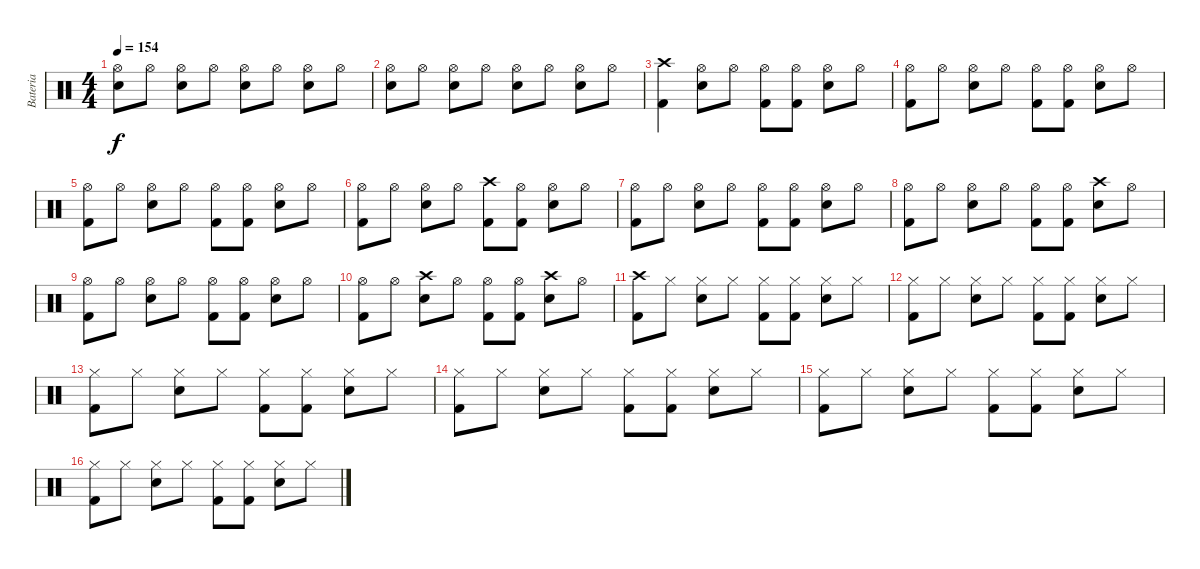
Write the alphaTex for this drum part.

\track ("Bateria" "Bateria") {instrument percussion}
\staff {score}
\articulation defaults
\ts (4 4)
\tempo 154
\clef neutral
\ks c
("Electric Snare (hit)" "Hi-Hat (open)").8{dy f} "Hi-Hat (open)".8 ("Electric Snare (hit)" "Hi-Hat (open)").8 "Hi-Hat (open)".8 ("Electric Snare (hit)" "Hi-Hat (open)").8 "Hi-Hat (open)".8 ("Electric Snare (hit)" "Hi-Hat (open)").8 "Hi-Hat (open)".8 |
("Electric Snare (hit)" "Hi-Hat (open)").8 "Hi-Hat (open)".8 ("Electric Snare (hit)" "Hi-Hat (open)").8 "Hi-Hat (open)".8 ("Electric Snare (hit)" "Hi-Hat (open)").8 "Hi-Hat (open)".8 ("Electric Snare (hit)" "Hi-Hat (open)").8 "Hi-Hat (open)".8 |
("Kick (hit) 2" "Crash high (hit)").4 ("Electric Snare (hit)" "Hi-Hat (open)").8 "Hi-Hat (open)".8 ("Kick (hit) 2" "Hi-Hat (open)").8 ("Kick (hit) 2" "Hi-Hat (open)").8 ("Electric Snare (hit)" "Hi-Hat (open)").8 "Hi-Hat (open)".8 |
("Kick (hit) 2" "Hi-Hat (open)").8 "Hi-Hat (open)".8 ("Electric Snare (hit)" "Hi-Hat (open)").8 "Hi-Hat (open)".8 ("Kick (hit) 2" "Hi-Hat (open)").8 ("Kick (hit) 2" "Hi-Hat (open)").8 ("Electric Snare (hit)" "Hi-Hat (open)").8 "Hi-Hat (open)".8 |
("Kick (hit) 2" "Hi-Hat (open)").8 "Hi-Hat (open)".8 ("Electric Snare (hit)" "Hi-Hat (open)").8 "Hi-Hat (open)".8 ("Kick (hit) 2" "Hi-Hat (open)").8 ("Kick (hit) 2" "Hi-Hat (open)").8 ("Electric Snare (hit)" "Hi-Hat (open)").8 "Hi-Hat (open)".8 |
("Kick (hit) 2" "Hi-Hat (open)").8 "Hi-Hat (open)".8 ("Electric Snare (hit)" "Hi-Hat (open)").8 "Hi-Hat (open)".8 ("Kick (hit) 2" "Crash high (hit)").8 ("Kick (hit) 2" "Hi-Hat (open)").8 ("Electric Snare (hit)" "Hi-Hat (open)").8 "Hi-Hat (open)".8 |
("Kick (hit) 2" "Hi-Hat (open)").8 "Hi-Hat (open)".8 ("Electric Snare (hit)" "Hi-Hat (open)").8 "Hi-Hat (open)".8 ("Kick (hit) 2" "Hi-Hat (open)").8 ("Kick (hit) 2" "Hi-Hat (open)").8 ("Electric Snare (hit)" "Hi-Hat (open)").8 "Hi-Hat (open)".8 |
("Kick (hit) 2" "Hi-Hat (open)").8 "Hi-Hat (open)".8 ("Electric Snare (hit)" "Hi-Hat (open)").8 "Hi-Hat (open)".8 ("Kick (hit) 2" "Hi-Hat (open)").8 ("Kick (hit) 2" "Hi-Hat (open)").8 ("Electric Snare (hit)" "Crash high (hit)").8 "Hi-Hat (open)".8 |
("Kick (hit) 2" "Hi-Hat (open)").8 "Hi-Hat (open)".8 ("Electric Snare (hit)" "Hi-Hat (open)").8 "Hi-Hat (open)".8 ("Kick (hit) 2" "Hi-Hat (open)").8 ("Kick (hit) 2" "Hi-Hat (open)").8 ("Electric Snare (hit)" "Hi-Hat (open)").8 "Hi-Hat (open)".8 |
("Kick (hit) 2" "Hi-Hat (open)").8 "Hi-Hat (open)".8 ("Electric Snare (hit)" "Crash high (hit)").8 "Hi-Hat (open)".8 ("Kick (hit) 2" "Hi-Hat (open)").8 ("Kick (hit) 2" "Hi-Hat (open)").8 ("Electric Snare (hit)" "Crash high (hit)").8 "Hi-Hat (open)".8 |
("Kick (hit) 2" "Crash high (hit)").8 "Hi-Hat (closed)".8 ("Electric Snare (hit)" "Hi-Hat (closed)").8 "Hi-Hat (closed)".8 ("Kick (hit) 2" "Hi-Hat (closed)").8 ("Kick (hit) 2" "Hi-Hat (closed)").8 ("Electric Snare (hit)" "Hi-Hat (closed)").8 "Hi-Hat (closed)".8 |
("Kick (hit) 2" "Hi-Hat (closed)").8 "Hi-Hat (closed)".8 ("Electric Snare (hit)" "Hi-Hat (closed)").8 "Hi-Hat (closed)".8 ("Kick (hit) 2" "Hi-Hat (closed)").8 ("Kick (hit) 2" "Hi-Hat (closed)").8 ("Electric Snare (hit)" "Hi-Hat (closed)").8 "Hi-Hat (closed)".8 |
("Kick (hit) 2" "Hi-Hat (closed)").8 "Hi-Hat (closed)".8 ("Electric Snare (hit)" "Hi-Hat (closed)").8 "Hi-Hat (closed)".8 ("Kick (hit) 2" "Hi-Hat (closed)").8 ("Kick (hit) 2" "Hi-Hat (closed)").8 ("Electric Snare (hit)" "Hi-Hat (closed)").8 "Hi-Hat (closed)".8 |
("Kick (hit) 2" "Hi-Hat (closed)").8 "Hi-Hat (closed)".8 ("Electric Snare (hit)" "Hi-Hat (closed)").8 "Hi-Hat (closed)".8 ("Kick (hit) 2" "Hi-Hat (closed)").8 ("Kick (hit) 2" "Hi-Hat (closed)").8 ("Electric Snare (hit)" "Hi-Hat (closed)").8 "Hi-Hat (closed)".8 |
("Kick (hit) 2" "Hi-Hat (closed)").8 "Hi-Hat (closed)".8 ("Electric Snare (hit)" "Hi-Hat (closed)").8 "Hi-Hat (closed)".8 ("Kick (hit) 2" "Hi-Hat (closed)").8 ("Kick (hit) 2" "Hi-Hat (closed)").8 ("Electric Snare (hit)" "Hi-Hat (closed)").8 "Hi-Hat (closed)".8 |
("Kick (hit) 2" "Hi-Hat (closed)").8 "Hi-Hat (closed)".8 ("Electric Snare (hit)" "Hi-Hat (closed)").8 "Hi-Hat (closed)".8 ("Kick (hit) 2" "Hi-Hat (closed)").8 ("Kick (hit) 2" "Hi-Hat (closed)").8 ("Electric Snare (hit)" "Hi-Hat (closed)").8 "Hi-Hat (closed)".8
